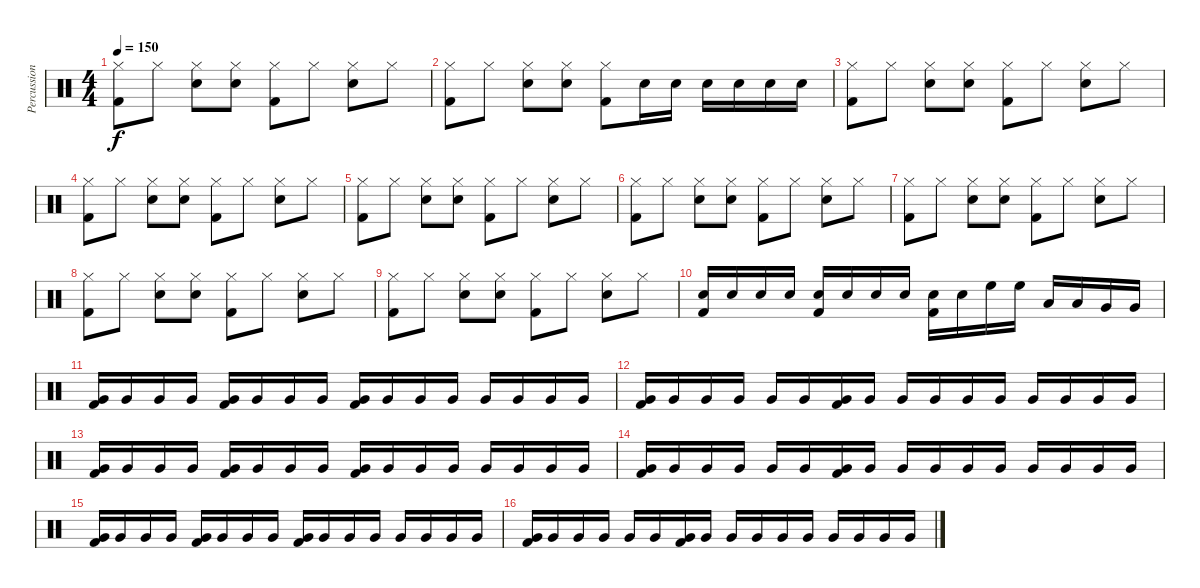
\track ("Percussion" "Percussion") {instrument percussion}
\staff {score}
\articulation defaults
\ts (4 4)
\tempo 150
\clef neutral
\ks c
("Hi-Hat (closed)" "Kick (hit) 2").8{dy f} "Hi-Hat (closed)".8 ("Hi-Hat (closed)" "Electric Snare (hit)").8 ("Hi-Hat (closed)" "Electric Snare (hit)").8 ("Hi-Hat (closed)" "Kick (hit) 2").8 "Hi-Hat (closed)".8 ("Hi-Hat (closed)" "Electric Snare (hit)").8 "Hi-Hat (closed)".8 |
("Hi-Hat (closed)" "Kick (hit) 2").8 "Hi-Hat (closed)".8 ("Hi-Hat (closed)" "Electric Snare (hit)").8 ("Hi-Hat (closed)" "Electric Snare (hit)").8 ("Hi-Hat (closed)" "Kick (hit) 2").8 "Electric Snare (hit)".16 "Electric Snare (hit)".16 "Electric Snare (hit)".16 "Electric Snare (hit)".16 "Electric Snare (hit)".16 "Electric Snare (hit)".16 |
("Hi-Hat (closed)" "Kick (hit) 2").8 "Hi-Hat (closed)".8 ("Hi-Hat (closed)" "Electric Snare (hit)").8 ("Hi-Hat (closed)" "Electric Snare (hit)").8 ("Hi-Hat (closed)" "Kick (hit) 2").8 "Hi-Hat (closed)".8 ("Hi-Hat (closed)" "Electric Snare (hit)").8 "Hi-Hat (closed)".8 |
("Hi-Hat (closed)" "Kick (hit) 2").8 "Hi-Hat (closed)".8 ("Hi-Hat (closed)" "Electric Snare (hit)").8 ("Hi-Hat (closed)" "Electric Snare (hit)").8 ("Hi-Hat (closed)" "Kick (hit) 2").8 "Hi-Hat (closed)".8 ("Hi-Hat (closed)" "Electric Snare (hit)").8 "Hi-Hat (closed)".8 |
("Hi-Hat (closed)" "Kick (hit) 2").8 "Hi-Hat (closed)".8 ("Hi-Hat (closed)" "Electric Snare (hit)").8 ("Hi-Hat (closed)" "Electric Snare (hit)").8 ("Hi-Hat (closed)" "Kick (hit) 2").8 "Hi-Hat (closed)".8 ("Hi-Hat (closed)" "Electric Snare (hit)").8 "Hi-Hat (closed)".8 |
("Hi-Hat (closed)" "Kick (hit) 2").8 "Hi-Hat (closed)".8 ("Hi-Hat (closed)" "Electric Snare (hit)").8 ("Hi-Hat (closed)" "Electric Snare (hit)").8 ("Hi-Hat (closed)" "Kick (hit) 2").8 "Hi-Hat (closed)".8 ("Hi-Hat (closed)" "Electric Snare (hit)").8 "Hi-Hat (closed)".8 |
("Hi-Hat (closed)" "Kick (hit) 2").8 "Hi-Hat (closed)".8 ("Hi-Hat (closed)" "Electric Snare (hit)").8 ("Hi-Hat (closed)" "Electric Snare (hit)").8 ("Hi-Hat (closed)" "Kick (hit) 2").8 "Hi-Hat (closed)".8 ("Hi-Hat (closed)" "Electric Snare (hit)").8 "Hi-Hat (closed)".8 |
("Hi-Hat (closed)" "Kick (hit) 2").8 "Hi-Hat (closed)".8 ("Hi-Hat (closed)" "Electric Snare (hit)").8 ("Hi-Hat (closed)" "Electric Snare (hit)").8 ("Hi-Hat (closed)" "Kick (hit) 2").8 "Hi-Hat (closed)".8 ("Hi-Hat (closed)" "Electric Snare (hit)").8 "Hi-Hat (closed)".8 |
("Hi-Hat (closed)" "Kick (hit) 2").8 "Hi-Hat (closed)".8 ("Hi-Hat (closed)" "Electric Snare (hit)").8 ("Hi-Hat (closed)" "Electric Snare (hit)").8 ("Hi-Hat (closed)" "Kick (hit) 2").8 "Hi-Hat (closed)".8 ("Hi-Hat (closed)" "Electric Snare (hit)").8 "Hi-Hat (closed)".8 |
("Electric Snare (hit)" "Kick (hit) 2").16 "Electric Snare (hit)".16 "Electric Snare (hit)".16 "Electric Snare (hit)".16 ("Electric Snare (hit)" "Kick (hit) 2").16 "Electric Snare (hit)".16 "Electric Snare (hit)".16 "Electric Snare (hit)".16 ("Electric Snare (hit)" "Kick (hit) 2").16 "Electric Snare (hit)".16 "High Floor Tom (hit)".16 "High Floor Tom (hit)".16 "Low Tom (hit)".16 "Low Tom (hit)".16 "Very Low Tom (hit)".16 "Very Low Tom (hit)".16 |
("Very Low Tom (hit)" "Kick (hit) 2").16 "Very Low Tom (hit)".16 "Very Low Tom (hit)".16 "Very Low Tom (hit)".16 ("Very Low Tom (hit)" "Kick (hit) 2").16 "Very Low Tom (hit)".16 "Very Low Tom (hit)".16 "Very Low Tom (hit)".16 ("Very Low Tom (hit)" "Kick (hit) 2").16 "Very Low Tom (hit)".16 "Very Low Tom (hit)".16 "Very Low Tom (hit)".16 "Very Low Tom (hit)".16 "Very Low Tom (hit)".16 "Very Low Tom (hit)".16 "Very Low Tom (hit)".16 |
("Very Low Tom (hit)" "Kick (hit) 2").16 "Very Low Tom (hit)".16 "Very Low Tom (hit)".16 "Very Low Tom (hit)".16 "Very Low Tom (hit)".16 "Very Low Tom (hit)".16 ("Very Low Tom (hit)" "Kick (hit) 2").16 "Very Low Tom (hit)".16 "Very Low Tom (hit)".16 "Very Low Tom (hit)".16 "Very Low Tom (hit)".16 "Very Low Tom (hit)".16 "Very Low Tom (hit)".16 "Very Low Tom (hit)".16 "Very Low Tom (hit)".16 "Very Low Tom (hit)".16 |
("Very Low Tom (hit)" "Kick (hit) 2").16 "Very Low Tom (hit)".16 "Very Low Tom (hit)".16 "Very Low Tom (hit)".16 ("Very Low Tom (hit)" "Kick (hit) 2").16 "Very Low Tom (hit)".16 "Very Low Tom (hit)".16 "Very Low Tom (hit)".16 ("Very Low Tom (hit)" "Kick (hit) 2").16 "Very Low Tom (hit)".16 "Very Low Tom (hit)".16 "Very Low Tom (hit)".16 "Very Low Tom (hit)".16 "Very Low Tom (hit)".16 "Very Low Tom (hit)".16 "Very Low Tom (hit)".16 |
("Very Low Tom (hit)" "Kick (hit) 2").16 "Very Low Tom (hit)".16 "Very Low Tom (hit)".16 "Very Low Tom (hit)".16 "Very Low Tom (hit)".16 "Very Low Tom (hit)".16 ("Very Low Tom (hit)" "Kick (hit) 2").16 "Very Low Tom (hit)".16 "Very Low Tom (hit)".16 "Very Low Tom (hit)".16 "Very Low Tom (hit)".16 "Very Low Tom (hit)".16 "Very Low Tom (hit)".16 "Very Low Tom (hit)".16 "Very Low Tom (hit)".16 "Very Low Tom (hit)".16 |
("Very Low Tom (hit)" "Kick (hit) 2").16 "Very Low Tom (hit)".16 "Very Low Tom (hit)".16 "Very Low Tom (hit)".16 ("Very Low Tom (hit)" "Kick (hit) 2").16 "Very Low Tom (hit)".16 "Very Low Tom (hit)".16 "Very Low Tom (hit)".16 ("Very Low Tom (hit)" "Kick (hit) 2").16 "Very Low Tom (hit)".16 "Very Low Tom (hit)".16 "Very Low Tom (hit)".16 "Very Low Tom (hit)".16 "Very Low Tom (hit)".16 "Very Low Tom (hit)".16 "Very Low Tom (hit)".16 |
("Very Low Tom (hit)" "Kick (hit) 2").16 "Very Low Tom (hit)".16 "Very Low Tom (hit)".16 "Very Low Tom (hit)".16 "Very Low Tom (hit)".16 "Very Low Tom (hit)".16 ("Very Low Tom (hit)" "Kick (hit) 2").16 "Very Low Tom (hit)".16 "Very Low Tom (hit)".16 "Very Low Tom (hit)".16 "Very Low Tom (hit)".16 "Very Low Tom (hit)".16 "Very Low Tom (hit)".16 "Very Low Tom (hit)".16 "Very Low Tom (hit)".16 "Very Low Tom (hit)".16
